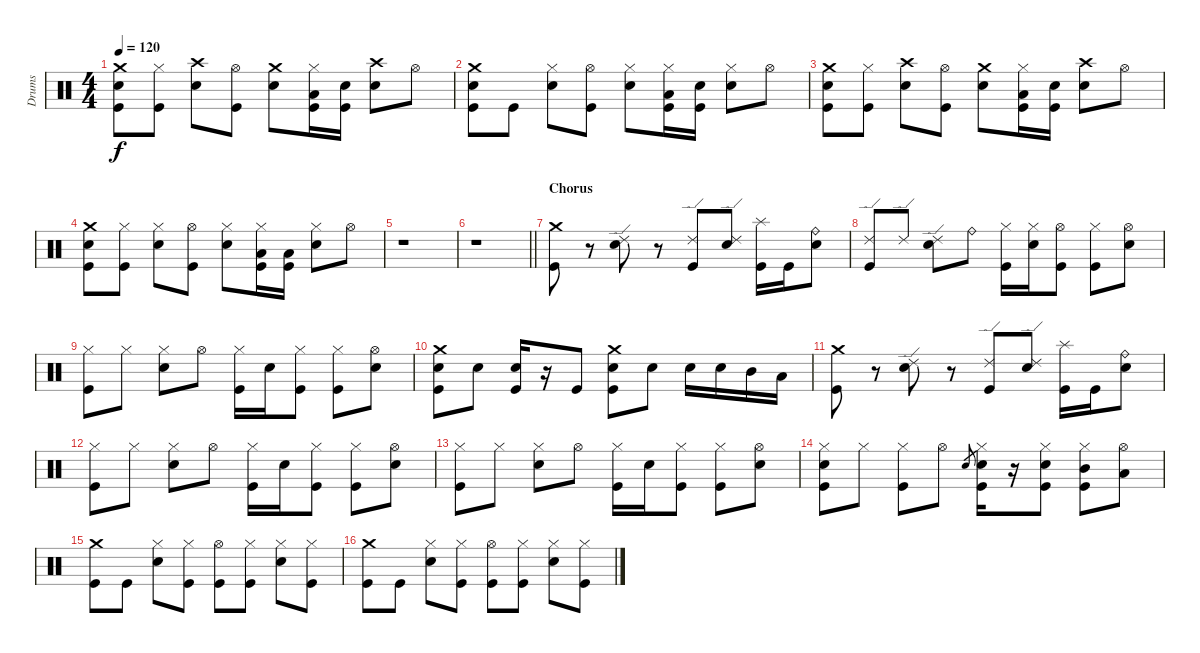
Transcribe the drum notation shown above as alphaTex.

\track ("Drums" "Drums") {instrument percussion}
\staff {score}
\articulation defaults
\ts (4 4)
\tempo 120
\clef neutral
\ks c
("Crash medium (hit)" "Snare (hit) 2" "Kick (hit)").8{dy f} ("Hi-Hat (closed)" "Kick (hit)").8 ("Crash high (hit)" "Snare (hit) 2").8 ("Hi-Hat (open)" "Kick (hit)").8 ("Crash medium (hit)" "Snare (hit) 2").8 ("Hi-Hat (closed)" "Low Tom (hit)" "Kick (hit)").16 ("Snare (hit) 2" "Kick (hit)").16 ("Crash high (hit)" "Snare (hit) 2").8 "Hi-Hat (open)".8 |
("Crash medium (hit)" "Snare (hit) 2" "Kick (hit)").8 "Kick (hit)".8 ("Hi-Hat (closed)" "Snare (hit) 2").8 ("Hi-Hat (open)" "Kick (hit)").8 ("Hi-Hat (closed)" "Snare (hit) 2").8 ("Hi-Hat (closed)" "Low Tom (hit)" "Kick (hit)").16 ("Snare (hit) 2" "Kick (hit)").16 ("Hi-Hat (closed)" "Snare (hit) 2").8 "Hi-Hat (open)".8 |
("Crash medium (hit)" "Snare (hit) 2" "Kick (hit)").8 ("Hi-Hat (closed)" "Kick (hit)").8 ("Crash high (hit)" "Snare (hit) 2").8 ("Hi-Hat (open)" "Kick (hit)").8 ("Crash medium (hit)" "Snare (hit) 2").8 ("Hi-Hat (closed)" "Low Tom (hit)" "Kick (hit)").16 ("Snare (hit) 2" "Kick (hit)").16 ("Crash high (hit)" "Snare (hit) 2").8 "Hi-Hat (open)".8 |
("Crash medium (hit)" "Snare (hit) 2" "Kick (hit)").8 ("Hi-Hat (closed)" "Kick (hit)").8 ("Hi-Hat (closed)" "Snare (hit) 2").8 ("Hi-Hat (open)" "Kick (hit)").8 ("Hi-Hat (closed)" "Snare (hit) 2").8 ("Hi-Hat (closed)" "Low Tom (hit)" "Kick (hit)").16 ("Low Tom (hit)" "Kick (hit)").16 ("Hi-Hat (closed)" "Snare (hit) 2").8 "Hi-Hat (open)".8 |
r.1 |
\barLineRight lightlight
r.1 |
\section ("" "Chorus")
("Crash medium (hit)" "Kick (hit)").8 r.8 ("Ride (edge) 2" "Snare (hit) 2").8 r.8 ("Ride (edge) 2" "Kick (hit)").8 ("Ride (edge) 2" "Snare (hit) 2").8 ("Splash (hit)" "Kick (hit)").16 "Kick (hit)".16 ("Ride (bell)" "Snare (hit) 2").8 |
("Ride (edge) 2" "Kick (hit)").8 "Ride (edge) 2".8 ("Ride (edge) 2" "Snare (hit) 2").8 "Ride (bell)".8 ("Hi-Hat (closed)" "Kick (hit)").16 ("Hi-Hat (closed)" "Snare (hit) 2").16 ("Hi-Hat (open)" "Kick (hit)").8 ("Hi-Hat (closed)" "Kick (hit)").8 ("Hi-Hat (open)" "Snare (hit) 2").8 |
("Hi-Hat (closed)" "Kick (hit)").8 "Hi-Hat (closed)".8 ("Hi-Hat (closed)" "Snare (hit) 2").8 "Hi-Hat (open)".8 ("Hi-Hat (closed)" "Kick (hit)").16 "Snare (hit) 2".16 ("Hi-Hat (closed)" "Kick (hit)").8 ("Hi-Hat (closed)" "Kick (hit)").8 ("Hi-Hat (open)" "Snare (hit) 2").8 |
("Crash medium (hit)" "Snare (hit) 2" "Kick (hit)").8 "Snare (hit) 2".8 ("Snare (hit) 2" "Kick (hit)").16 r.16 "Kick (hit)".8 ("Crash medium (hit)" "Snare (hit) 2" "Kick (hit)").8 "Snare (hit) 2".8 "Snare (hit) 2".16 "Snare (hit) 2".16 "Mid Tom (hit)".16 "Low Tom (hit)".16 |
("Crash medium (hit)" "Kick (hit)").8 r.8 ("Ride (edge) 2" "Snare (hit) 2").8 r.8 ("Ride (edge) 2" "Kick (hit)").8 ("Ride (edge) 2" "Snare (hit) 2").8 ("Splash (hit)" "Kick (hit)").16 "Kick (hit)".16 ("Ride (bell)" "Snare (hit) 2").8 |
("Hi-Hat (closed)" "Kick (hit)").8 "Hi-Hat (closed)".8 ("Hi-Hat (closed)" "Snare (hit) 2").8 "Hi-Hat (open)".8 ("Hi-Hat (closed)" "Kick (hit)").16 "Snare (hit) 2".16 ("Hi-Hat (closed)" "Kick (hit)").8 ("Hi-Hat (closed)" "Kick (hit)").8 ("Hi-Hat (open)" "Snare (hit) 2").8 |
("Hi-Hat (closed)" "Kick (hit)").8 "Hi-Hat (closed)".8 ("Hi-Hat (closed)" "Snare (hit) 2").8 "Hi-Hat (open)".8 ("Hi-Hat (closed)" "Kick (hit)").16 "Snare (hit) 2".16 ("Hi-Hat (closed)" "Kick (hit)").8 ("Hi-Hat (closed)" "Kick (hit)").8 ("Hi-Hat (open)" "Snare (hit) 2").8 |
("Hi-Hat (closed)" "Snare (hit) 2" "Kick (hit)").8 "Hi-Hat (closed)".8 ("Hi-Hat (closed)" "Kick (hit)").8 "Hi-Hat (open)".8 "Snare (hit) 2".8{gr} ("Hi-Hat (closed)" "Snare (hit) 2" "Kick (hit)").16 r.16 ("Hi-Hat (closed)" "Snare (hit) 2" "Kick (hit)").8 ("Hi-Hat (closed)" "Mid Tom (hit)" "Kick (hit)").8 ("Hi-Hat (open)" "Low Tom (hit)").8 |
("Crash medium (hit)" "Kick (hit)").8 "Kick (hit)".8 ("Hi-Hat (closed)" "Snare (hit) 2").8 ("Hi-Hat (closed)" "Kick (hit)").8 ("Hi-Hat (open)" "Kick (hit)").8 ("Hi-Hat (closed)" "Kick (hit)").8 ("Hi-Hat (closed)" "Snare (hit) 2").8 ("Hi-Hat (closed)" "Kick (hit)").8 |
("Crash medium (hit)" "Kick (hit)").8 "Kick (hit)".8 ("Hi-Hat (closed)" "Snare (hit) 2").8 ("Hi-Hat (closed)" "Kick (hit)").8 ("Hi-Hat (open)" "Kick (hit)").8 ("Hi-Hat (closed)" "Kick (hit)").8 ("Hi-Hat (closed)" "Snare (hit) 2").8 ("Hi-Hat (closed)" "Kick (hit)").8
